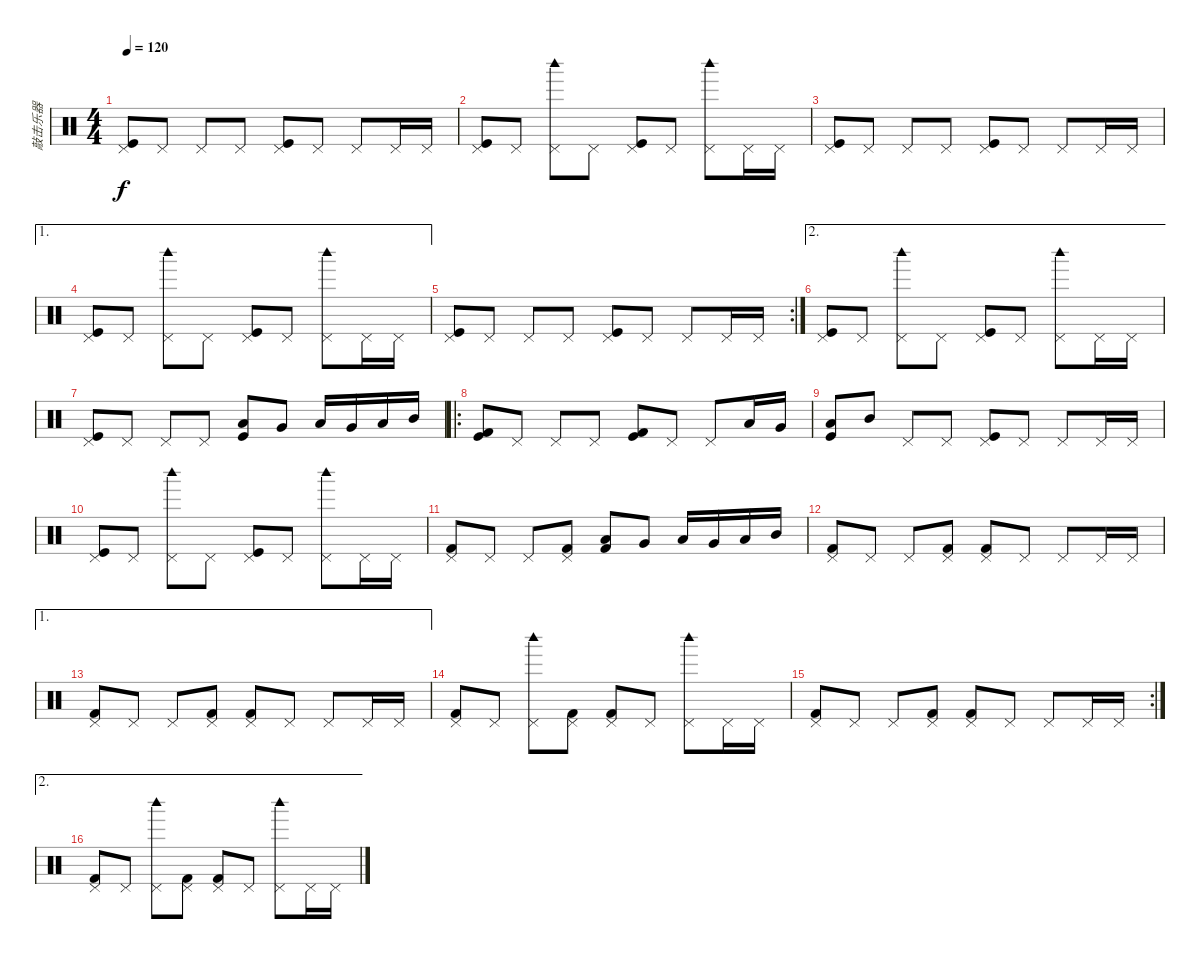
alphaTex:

\track ("敲击乐器" "敲击乐器") {instrument percussion}
\staff {score}
\articulation defaults
\ts (4 4)
\tempo 120
\clef neutral
\ks c
("Pedal Hi-Hat (hit)" "Kick (hit)").8{dy f} "Pedal Hi-Hat (hit)".8 "Pedal Hi-Hat (hit)".8 "Pedal Hi-Hat (hit)".8 ("Pedal Hi-Hat (hit)" "Kick (hit)").8 "Pedal Hi-Hat (hit)".8 "Pedal Hi-Hat (hit)".8 "Pedal Hi-Hat (hit)".16 "Pedal Hi-Hat (hit)".16 |
("Pedal Hi-Hat (hit)" "Kick (hit)").8 "Pedal Hi-Hat (hit)".8 ("Pedal Hi-Hat (hit)" "Woodblock high (hit)").8 "Pedal Hi-Hat (hit)".8 ("Pedal Hi-Hat (hit)" "Kick (hit)").8 "Pedal Hi-Hat (hit)".8 ("Pedal Hi-Hat (hit)" "Woodblock high (hit)").8 "Pedal Hi-Hat (hit)".16 "Pedal Hi-Hat (hit)".16 |
("Pedal Hi-Hat (hit)" "Kick (hit)").8 "Pedal Hi-Hat (hit)".8 "Pedal Hi-Hat (hit)".8 "Pedal Hi-Hat (hit)".8 ("Pedal Hi-Hat (hit)" "Kick (hit)").8 "Pedal Hi-Hat (hit)".8 "Pedal Hi-Hat (hit)".8 "Pedal Hi-Hat (hit)".16 "Pedal Hi-Hat (hit)".16 |
\ae 1
("Pedal Hi-Hat (hit)" "Kick (hit)").8 "Pedal Hi-Hat (hit)".8 ("Pedal Hi-Hat (hit)" "Woodblock high (hit)").8 "Pedal Hi-Hat (hit)".8 ("Pedal Hi-Hat (hit)" "Kick (hit)").8 "Pedal Hi-Hat (hit)".8 ("Pedal Hi-Hat (hit)" "Woodblock high (hit)").8 "Pedal Hi-Hat (hit)".16 "Pedal Hi-Hat (hit)".16 |
\rc 2
("Pedal Hi-Hat (hit)" "Kick (hit)").8 "Pedal Hi-Hat (hit)".8 "Pedal Hi-Hat (hit)".8 "Pedal Hi-Hat (hit)".8 ("Pedal Hi-Hat (hit)" "Kick (hit)").8 "Pedal Hi-Hat (hit)".8 "Pedal Hi-Hat (hit)".8 "Pedal Hi-Hat (hit)".16 "Pedal Hi-Hat (hit)".16 |
\ae 2
("Pedal Hi-Hat (hit)" "Kick (hit)").8 "Pedal Hi-Hat (hit)".8 ("Pedal Hi-Hat (hit)" "Woodblock high (hit)").8 "Pedal Hi-Hat (hit)".8 ("Pedal Hi-Hat (hit)" "Kick (hit)").8 "Pedal Hi-Hat (hit)".8 ("Pedal Hi-Hat (hit)" "Woodblock high (hit)").8 "Pedal Hi-Hat (hit)".16 "Pedal Hi-Hat (hit)".16 |
("Pedal Hi-Hat (hit)" "Kick (hit)").8 "Pedal Hi-Hat (hit)".8 "Pedal Hi-Hat (hit)".8 "Pedal Hi-Hat (hit)".8 ("Low Floor Tom (hit)" "Kick (hit)").8 "Very Low Tom (hit)".8 "Low Floor Tom (hit)".16 "Very Low Tom (hit)".16 "Low Tom (hit)".16 "Mid Tom (hit)".16 |
\ro
("Kick (hit)" "Kick (hit) 2").8 "Pedal Hi-Hat (hit)".8 "Pedal Hi-Hat (hit)".8 "Pedal Hi-Hat (hit)".8 ("Kick (hit)" "Kick (hit) 2").8 "Pedal Hi-Hat (hit)".8 "Pedal Hi-Hat (hit)".8 "Low Floor Tom (hit)".16 "Very Low Tom (hit)".16 |
("Low Tom (hit)" "Kick (hit)").8 "Mid Tom (hit)".8 "Pedal Hi-Hat (hit)".8 "Pedal Hi-Hat (hit)".8 ("Pedal Hi-Hat (hit)" "Kick (hit)").8 "Pedal Hi-Hat (hit)".8 "Pedal Hi-Hat (hit)".8 "Pedal Hi-Hat (hit)".16 "Pedal Hi-Hat (hit)".16 |
("Pedal Hi-Hat (hit)" "Kick (hit)").8 "Pedal Hi-Hat (hit)".8 ("Pedal Hi-Hat (hit)" "Woodblock high (hit)").8 "Pedal Hi-Hat (hit)".8 ("Pedal Hi-Hat (hit)" "Kick (hit)").8 "Pedal Hi-Hat (hit)".8 ("Pedal Hi-Hat (hit)" "Woodblock high (hit)").8 "Pedal Hi-Hat (hit)".16 "Pedal Hi-Hat (hit)".16 |
("Pedal Hi-Hat (hit)" "Kick (hit) 2").8 "Pedal Hi-Hat (hit)".8 "Pedal Hi-Hat (hit)".8 ("Pedal Hi-Hat (hit)" "Kick (hit) 2").8 ("Low Floor Tom (hit)" "Kick (hit) 2").8 "Very Low Tom (hit)".8 "Low Floor Tom (hit)".16 "Very Low Tom (hit)".16 "Low Tom (hit)".16 "Mid Tom (hit)".16 |
("Pedal Hi-Hat (hit)" "Kick (hit) 2").8 "Pedal Hi-Hat (hit)".8 "Pedal Hi-Hat (hit)".8 ("Pedal Hi-Hat (hit)" "Kick (hit) 2").8 ("Pedal Hi-Hat (hit)" "Kick (hit) 2").8 "Pedal Hi-Hat (hit)".8 "Pedal Hi-Hat (hit)".8 "Pedal Hi-Hat (hit)".16 "Pedal Hi-Hat (hit)".16 |
\ae 1
("Pedal Hi-Hat (hit)" "Kick (hit) 2").8 "Pedal Hi-Hat (hit)".8 "Pedal Hi-Hat (hit)".8 ("Pedal Hi-Hat (hit)" "Kick (hit) 2").8 ("Pedal Hi-Hat (hit)" "Kick (hit) 2").8 "Pedal Hi-Hat (hit)".8 "Pedal Hi-Hat (hit)".8 "Pedal Hi-Hat (hit)".16 "Pedal Hi-Hat (hit)".16 |
("Pedal Hi-Hat (hit)" "Kick (hit) 2").8 "Pedal Hi-Hat (hit)".8 ("Pedal Hi-Hat (hit)" "Woodblock high (hit)").8 ("Pedal Hi-Hat (hit)" "Kick (hit) 2").8 ("Pedal Hi-Hat (hit)" "Kick (hit) 2").8 "Pedal Hi-Hat (hit)".8 ("Pedal Hi-Hat (hit)" "Woodblock high (hit)").8 "Pedal Hi-Hat (hit)".16 "Pedal Hi-Hat (hit)".16 |
\rc 2
("Pedal Hi-Hat (hit)" "Kick (hit) 2").8 "Pedal Hi-Hat (hit)".8 "Pedal Hi-Hat (hit)".8 ("Pedal Hi-Hat (hit)" "Kick (hit) 2").8 ("Pedal Hi-Hat (hit)" "Kick (hit) 2").8 "Pedal Hi-Hat (hit)".8 "Pedal Hi-Hat (hit)".8 "Pedal Hi-Hat (hit)".16 "Pedal Hi-Hat (hit)".16 |
\ae 2
("Pedal Hi-Hat (hit)" "Kick (hit) 2").8 "Pedal Hi-Hat (hit)".8 ("Pedal Hi-Hat (hit)" "Woodblock high (hit)").8 ("Pedal Hi-Hat (hit)" "Kick (hit) 2").8 ("Pedal Hi-Hat (hit)" "Kick (hit) 2").8 "Pedal Hi-Hat (hit)".8 ("Pedal Hi-Hat (hit)" "Woodblock high (hit)").8 "Pedal Hi-Hat (hit)".16 "Pedal Hi-Hat (hit)".16
